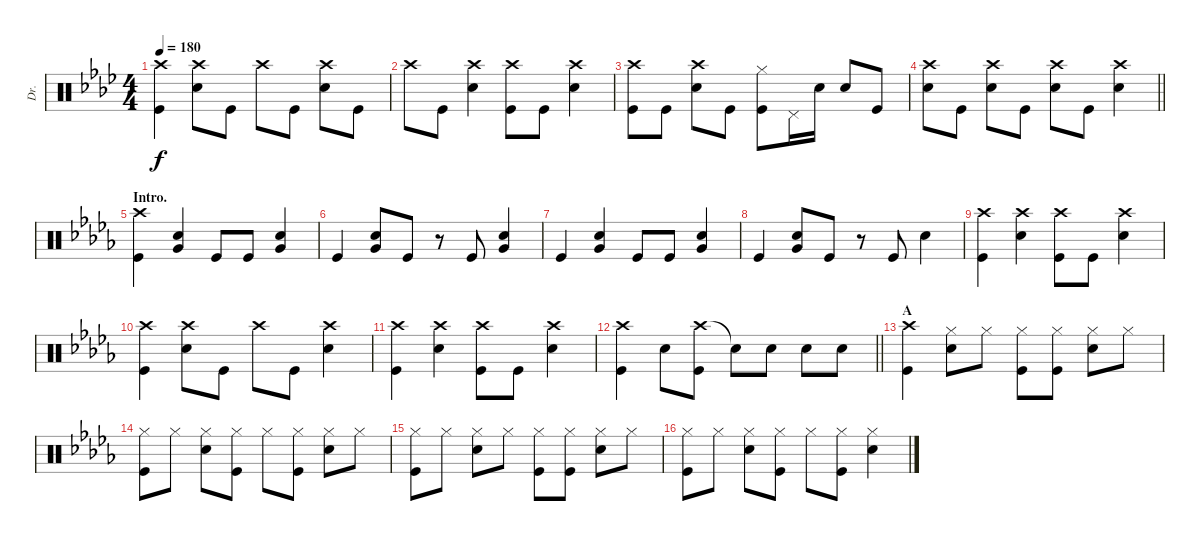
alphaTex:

\track ("Dr." "Dr.") {instrument percussion}
\staff {score}
\articulation defaults
\ts (4 4)
\tempo 180
\clef neutral
\ks ab
("Crash high (hit)" "Kick (hit)").4{dy f} ("Crash high (hit)" "Snare (hit) 2").8 "Kick (hit)".8 "Crash high (hit)".8 "Kick (hit)".8 ("Crash high (hit)" "Snare (hit) 2").8 "Kick (hit)".8 |
"Crash high (hit)".8 "Kick (hit)".8 ("Crash high (hit)" "Snare (hit) 2").4 ("Crash high (hit)" "Kick (hit)").8 "Kick (hit)".8 ("Crash high (hit)" "Snare (hit) 2").4 |
("Crash high (hit)" "Kick (hit)").8 "Kick (hit)".8 ("Crash high (hit)" "Snare (hit) 2").8 "Kick (hit)".8 ("Hi-Hat (closed)" "Kick (hit)").8 "Pedal Hi-Hat (hit)".16 "Snare (hit) 2".16 "Snare (hit) 2".8 "Kick (hit)".8 |
\barLineRight lightlight
("Crash high (hit)" "Snare (hit) 2").8 "Kick (hit)".8 ("Crash high (hit)" "Snare (hit) 2").8 "Kick (hit)".8 ("Crash high (hit)" "Snare (hit) 2").8 "Kick (hit)".8 ("Crash high (hit)" "Snare (hit) 2").4 |
\section ("" "Intro.")
\ks db
("Crash high (hit)" "Kick (hit)").4 ("Snare (hit) 2" "Very Low Tom (hit)").4 "Kick (hit)".8 "Kick (hit)".8 ("Snare (hit) 2" "Very Low Tom (hit)").4 |
"Kick (hit)".4 ("Snare (hit) 2" "Very Low Tom (hit)").8 "Kick (hit)".8 r.8 "Kick (hit)".8 ("Snare (hit) 2" "Very Low Tom (hit)").4 |
"Kick (hit)".4 ("Snare (hit) 2" "Very Low Tom (hit)").4 "Kick (hit)".8 "Kick (hit)".8 ("Snare (hit) 2" "Very Low Tom (hit)").4 |
"Kick (hit)".4 ("Snare (hit) 2" "Very Low Tom (hit)").8 "Kick (hit)".8 r.8 "Kick (hit)".8 "Snare (hit) 2".4 |
("Crash high (hit)" "Kick (hit)").4 ("Crash high (hit)" "Snare (hit) 2").4 ("Crash high (hit)" "Kick (hit)").8 "Kick (hit)".8 ("Crash high (hit)" "Snare (hit) 2").4 |
("Crash high (hit)" "Kick (hit)").4 ("Crash high (hit)" "Snare (hit) 2").8 "Kick (hit)".8 "Crash high (hit)".8 "Kick (hit)".8 ("Crash high (hit)" "Snare (hit) 2").4 |
("Crash high (hit)" "Kick (hit)").4 ("Crash high (hit)" "Snare (hit) 2").4 ("Crash high (hit)" "Kick (hit)").8 "Kick (hit)".8 ("Crash high (hit)" "Snare (hit) 2").4 |
\barLineRight lightlight
("Crash high (hit)" "Kick (hit)").4 "Snare (hit) 2".8 ("Crash high (hit)" "Kick (hit)").8 "Snare (hit)"{t}.8 "Snare (hit) 2".8 "Snare (hit) 2".8 "Snare (hit) 2".8 |
\section ("" "A")
("Crash high (hit)" "Kick (hit)").4 ("Hi-Hat (closed)" "Snare (hit) 2").8 "Hi-Hat (closed)".8 ("Hi-Hat (closed)" "Kick (hit)").8 ("Hi-Hat (closed)" "Kick (hit)").8 ("Hi-Hat (closed)" "Snare (hit) 2").8 "Hi-Hat (closed)".8 |
("Hi-Hat (closed)" "Kick (hit)").8 "Hi-Hat (closed)".8 ("Hi-Hat (closed)" "Snare (hit) 2").8 ("Hi-Hat (closed)" "Kick (hit)").8 "Hi-Hat (closed)".8 ("Hi-Hat (closed)" "Kick (hit)").8 ("Hi-Hat (closed)" "Snare (hit) 2").8 "Hi-Hat (closed)".8 |
("Hi-Hat (closed)" "Kick (hit)").8 "Hi-Hat (closed)".8 ("Hi-Hat (closed)" "Snare (hit) 2").8 "Hi-Hat (closed)".8 ("Hi-Hat (closed)" "Kick (hit)").8 ("Hi-Hat (closed)" "Kick (hit)").8 ("Hi-Hat (closed)" "Snare (hit) 2").8 "Hi-Hat (closed)".8 |
("Hi-Hat (closed)" "Kick (hit)").8 "Hi-Hat (closed)".8 ("Hi-Hat (closed)" "Snare (hit) 2").8 ("Hi-Hat (closed)" "Kick (hit)").8 "Hi-Hat (closed)".8 ("Hi-Hat (closed)" "Kick (hit)").8 ("Hi-Hat (closed)" "Snare (hit) 2").4
